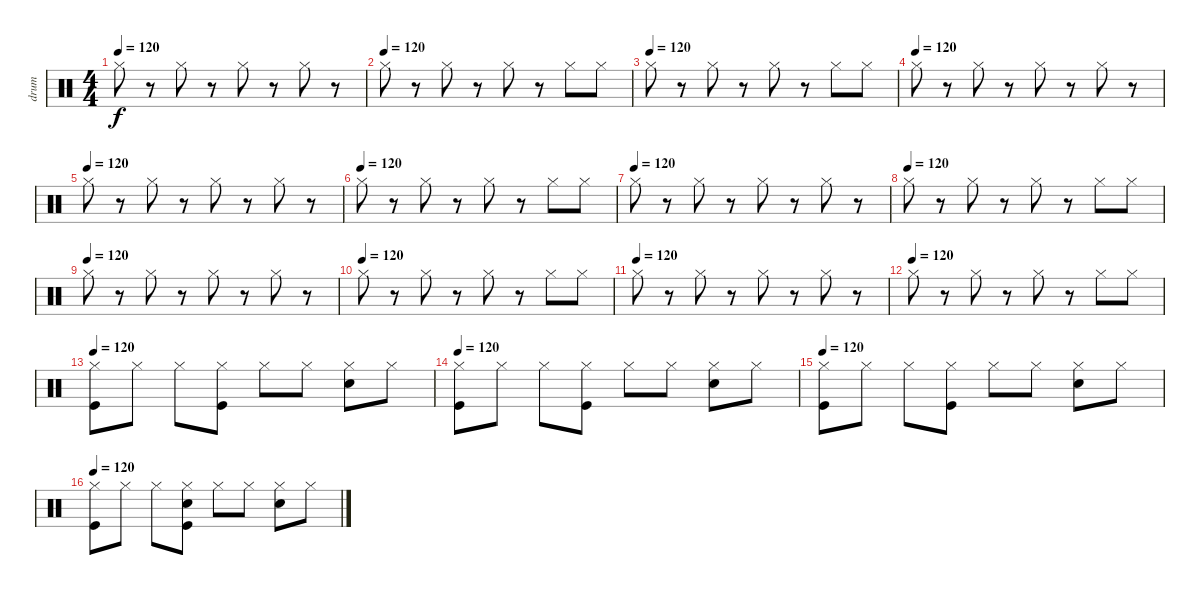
\track ("drum" "drum") {instrument percussion}
\staff {score}
\articulation defaults
\ts (4 4)
\tempo 120
\clef neutral
\ks c "Hi-Hat (closed)".8{dy f}
r.8 "Hi-Hat (closed)".8 r.8 "Hi-Hat (closed)".8 r.8 "Hi-Hat (closed)".8 r.8 |
\tempo (120)
"Hi-Hat (closed)".8 r.8 "Hi-Hat (closed)".8 r.8 "Hi-Hat (closed)".8 r.8 "Hi-Hat (closed)".8 "Hi-Hat (closed)".8 |
\tempo (120)
"Hi-Hat (closed)".8 r.8 "Hi-Hat (closed)".8 r.8 "Hi-Hat (closed)".8 r.8 "Hi-Hat (closed)".8 "Hi-Hat (closed)".8 |
\tempo (120)
"Hi-Hat (closed)".8 r.8 "Hi-Hat (closed)".8 r.8 "Hi-Hat (closed)".8 r.8 "Hi-Hat (closed)".8 r.8 |
\tempo (120)
"Hi-Hat (closed)".8 r.8 "Hi-Hat (closed)".8 r.8 "Hi-Hat (closed)".8 r.8 "Hi-Hat (closed)".8 r.8 |
\tempo (120)
"Hi-Hat (closed)".8 r.8 "Hi-Hat (closed)".8 r.8 "Hi-Hat (closed)".8 r.8 "Hi-Hat (closed)".8 "Hi-Hat (closed)".8 |
\tempo (120)
"Hi-Hat (closed)".8 r.8 "Hi-Hat (closed)".8 r.8 "Hi-Hat (closed)".8 r.8 "Hi-Hat (closed)".8 r.8 |
\tempo (120)
"Hi-Hat (closed)".8 r.8 "Hi-Hat (closed)".8 r.8 "Hi-Hat (closed)".8 r.8 "Hi-Hat (closed)".8 "Hi-Hat (closed)".8 |
\tempo (120)
"Hi-Hat (closed)".8 r.8 "Hi-Hat (closed)".8 r.8 "Hi-Hat (closed)".8 r.8 "Hi-Hat (closed)".8 r.8 |
\tempo (120)
"Hi-Hat (closed)".8 r.8 "Hi-Hat (closed)".8 r.8 "Hi-Hat (closed)".8 r.8 "Hi-Hat (closed)".8 "Hi-Hat (closed)".8 |
\tempo (120)
"Hi-Hat (closed)".8 r.8 "Hi-Hat (closed)".8 r.8 "Hi-Hat (closed)".8 r.8 "Hi-Hat (closed)".8 r.8 |
\tempo (120)
"Hi-Hat (closed)".8 r.8 "Hi-Hat (closed)".8 r.8 "Hi-Hat (closed)".8 r.8 "Hi-Hat (closed)".8 "Hi-Hat (closed)".8 |
\tempo 120
("Hi-Hat (closed)" "Kick (hit)").8 "Hi-Hat (closed)".8 "Hi-Hat (closed)".8 ("Kick (hit)" "Hi-Hat (closed)").8 "Hi-Hat (closed)".8 "Hi-Hat (closed)".8 ("Electric Snare (hit)" "Hi-Hat (closed)").8 "Hi-Hat (closed)".8 |
\tempo 120
("Hi-Hat (closed)" "Kick (hit)").8 "Hi-Hat (closed)".8 "Hi-Hat (closed)".8 ("Kick (hit)" "Hi-Hat (closed)").8 "Hi-Hat (closed)".8 "Hi-Hat (closed)".8 ("Electric Snare (hit)" "Hi-Hat (closed)").8 "Hi-Hat (closed)".8 |
\tempo 120
("Hi-Hat (closed)" "Kick (hit)").8 "Hi-Hat (closed)".8 "Hi-Hat (closed)".8 ("Kick (hit)" "Hi-Hat (closed)").8 "Hi-Hat (closed)".8 "Hi-Hat (closed)".8 ("Electric Snare (hit)" "Hi-Hat (closed)").8 "Hi-Hat (closed)".8 |
\tempo 120
("Hi-Hat (closed)" "Kick (hit)").8 "Hi-Hat (closed)".8 "Hi-Hat (closed)".8 ("Kick (hit)" "Electric Snare (hit)" "Hi-Hat (closed)").8 "Hi-Hat (closed)".8 "Hi-Hat (closed)".8 ("Electric Snare (hit)" "Hi-Hat (closed)").8 "Hi-Hat (closed)".8
